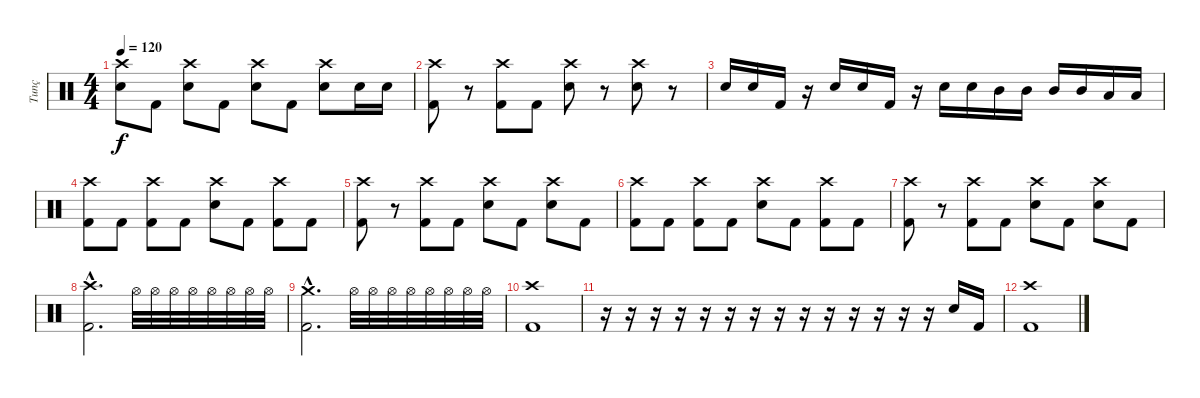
\track ("Tunç" "Tunç") {instrument percussion}
\staff {score}
\articulation defaults
\ts (4 4)
\tempo 120
\clef neutral
\ks c
("Crash high (hit)" "Snare (hit) 2").8{dy f} "Kick (hit) 2".8 ("Crash high (hit)" "Snare (hit) 2").8 "Kick (hit) 2".8 ("Crash high (hit)" "Snare (hit) 2").8 "Kick (hit) 2".8 ("Crash high (hit)" "Snare (hit) 2").8 "Snare (hit) 2".16 "Snare (hit) 2".16 |
("Crash high (hit)" "Kick (hit) 2").8 r.8 ("Crash high (hit)" "Kick (hit) 2").8 "Kick (hit) 2".8 ("Crash high (hit)" "Snare (hit) 2").8 r.8 ("Crash high (hit)" "Snare (hit) 2").8 r.8 |
"Snare (hit) 2".16 "Snare (hit) 2".16 "Kick (hit) 2".16 r.16 "Snare (hit) 2".16 "Snare (hit) 2".16 "Kick (hit) 2".16 r.16 "Snare (hit) 2".16 "Snare (hit) 2".16 "Mid Tom (hit)".16 "Mid Tom (hit)".16 "Mid Tom (hit)".16 "Mid Tom (hit)".16 "Low Floor Tom (hit)".16 "Low Floor Tom (hit)".16 |
("Crash high (hit)" "Kick (hit) 2").8 "Kick (hit) 2".8 ("Crash high (hit)" "Kick (hit) 2").8 "Kick (hit) 2".8 ("Crash high (hit)" "Snare (hit) 2").8 "Kick (hit) 2".8 ("Crash high (hit)" "Kick (hit) 2").8 "Kick (hit) 2".8 |
("Crash high (hit)" "Kick (hit) 2").8 r.8 ("Crash high (hit)" "Kick (hit) 2").8 "Kick (hit) 2".8 ("Crash high (hit)" "Snare (hit) 2").8 "Kick (hit) 2".8 ("Crash high (hit)" "Snare (hit) 2").8 "Kick (hit) 2".8 |
("Crash high (hit)" "Kick (hit) 2").8 "Kick (hit) 2".8 ("Crash high (hit)" "Kick (hit) 2").8 "Kick (hit) 2".8 ("Crash high (hit)" "Snare (hit) 2").8 "Kick (hit) 2".8 ("Crash high (hit)" "Kick (hit) 2").8 "Kick (hit) 2".8 |
("Crash high (hit)" "Kick (hit) 2").8 r.8 ("Crash high (hit)" "Kick (hit) 2").8 "Kick (hit) 2".8 ("Crash high (hit)" "Snare (hit) 2").8 "Kick (hit) 2".8 ("Crash high (hit)" "Snare (hit) 2").8 "Kick (hit) 2".8 |
("Crash high (hit)"{hac} "Kick (hit) 2"{hac}).2{d} "Hi-Hat (open)".32 "Hi-Hat (open)".32 "Hi-Hat (open)".32 "Hi-Hat (open)".32 "Hi-Hat (open)".32 "Hi-Hat (open)".32 "Hi-Hat (open)".32 "Hi-Hat (open)".32 |
("Crash medium (hit)"{hac} "Kick (hit) 2"{hac}).2{d} "Hi-Hat (open)".32 "Hi-Hat (open)".32 "Hi-Hat (open)".32 "Hi-Hat (open)".32 "Hi-Hat (open)".32 "Hi-Hat (open)".32 "Hi-Hat (open)".32 "Hi-Hat (open)".32 |
("Crash high (hit)" "Kick (hit) 2").1 |
r.16 r.16 r.16 r.16 r.16 r.16 r.16 r.16 r.16 r.16 r.16 r.16 r.16 r.16 "Snare (hit) 2".16 "Kick (hit) 2".16 |
("Kick (hit) 2" "Crash high (hit)").1
